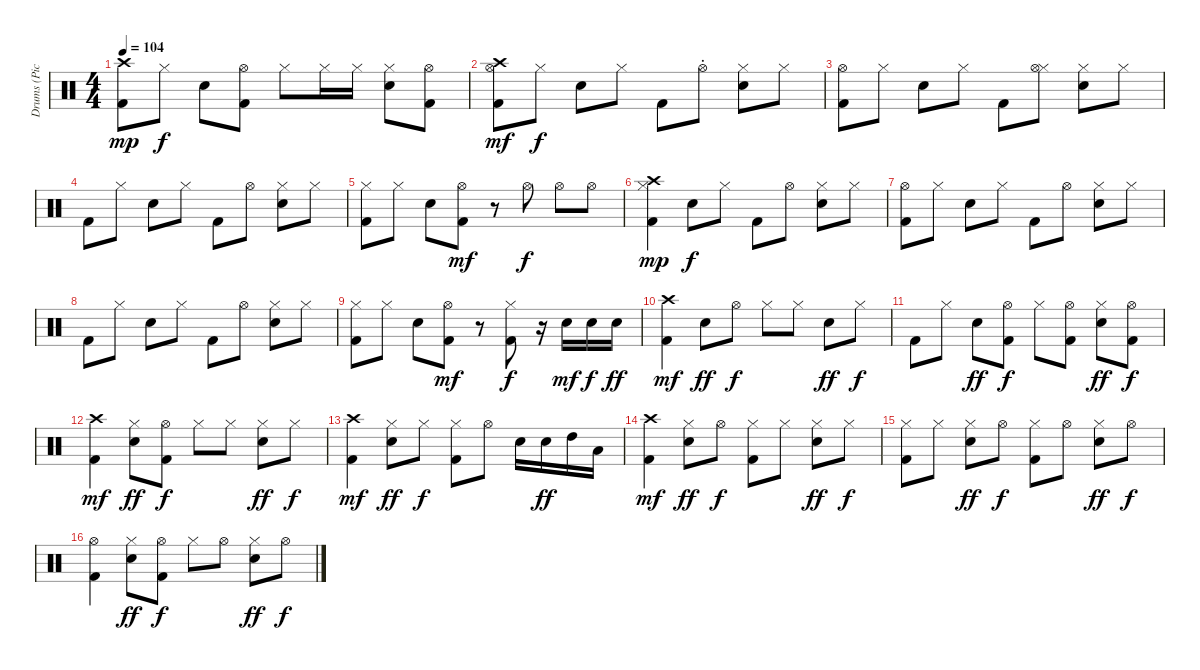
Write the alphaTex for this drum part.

\track ("Drums (Pick Whiters)" "Drums (Pic") {instrument percussion}
\staff {score}
\articulation defaults
\ts (4 4)
\tempo 104
\clef neutral
\ks c
("Kick (hit) 2" "Crash high (hit)").8{dy mp} "Hi-Hat (closed)".8{dy f} "Snare (hit) 2".8 ("Kick (hit) 2" "Hi-Hat (open)").8 "Hi-Hat (closed)".8 "Hi-Hat (closed)".16 "Hi-Hat (closed)".16 ("Snare (hit) 2" "Hi-Hat (closed)").8 ("Kick (hit) 2" "Hi-Hat (open)").8 |
("Crash high (hit)" "Kick (hit) 2" "Hi-Hat (open)").8{dy mf} "Hi-Hat (closed)".8{dy f} "Snare (hit) 2".8 "Hi-Hat (closed)".8 "Kick (hit) 2".8 "Hi-Hat (open)"{st}.8 ("Snare (hit) 2" "Hi-Hat (closed)").8 "Hi-Hat (closed)".8 |
("Kick (hit) 2" "Hi-Hat (open)").8 "Hi-Hat (closed)".8 "Snare (hit) 2".8 "Hi-Hat (closed)".8 "Kick (hit) 2".8 ("Hi-Hat (closed)" "Hi-Hat (open)").8 ("Snare (hit) 2" "Hi-Hat (closed)").8 "Hi-Hat (closed)".8 |
"Kick (hit) 2".8 "Hi-Hat (closed)".8 "Snare (hit) 2".8 "Hi-Hat (closed)".8 "Kick (hit) 2".8 "Hi-Hat (open)".8 ("Snare (hit) 2" "Hi-Hat (closed)").8 "Hi-Hat (closed)".8 |
("Kick (hit) 2" "Hi-Hat (closed)").8 "Hi-Hat (closed)".8 "Snare (hit) 2".8 ("Kick (hit) 2" "Hi-Hat (open)").8{dy mf} r.8 "Hi-Hat (open)".8{dy f} "Hi-Hat (open)".8 "Hi-Hat (open)".8 |
("Crash high (hit)" "Kick (hit) 2" "Hi-Hat (closed)").4{dy mp} "Snare (hit) 2".8{dy f} "Hi-Hat (closed)".8 "Kick (hit) 2".8 "Hi-Hat (open)".8 ("Snare (hit) 2" "Hi-Hat (closed)").8 "Hi-Hat (closed)".8 |
("Kick (hit) 2" "Hi-Hat (open)").8 "Hi-Hat (closed)".8 "Snare (hit) 2".8 "Hi-Hat (closed)".8 "Kick (hit) 2".8 "Hi-Hat (open)".8 ("Snare (hit) 2" "Hi-Hat (closed)").8 "Hi-Hat (closed)".8 |
"Kick (hit) 2".8 "Hi-Hat (closed)".8 "Snare (hit) 2".8 "Hi-Hat (closed)".8 "Kick (hit) 2".8 "Hi-Hat (open)".8 ("Snare (hit) 2" "Hi-Hat (closed)").8 "Hi-Hat (closed)".8 |
("Kick (hit) 2" "Hi-Hat (closed)").8 "Hi-Hat (closed)".8 "Snare (hit) 2".8 ("Kick (hit) 2" "Hi-Hat (open)").8{dy mf} r.8 ("Hi-Hat (closed)" "Kick (hit) 2").8{dy f} r.16 "Snare (hit) 2".16{dy mf} "Snare (hit) 2".16{dy f} "Snare (hit) 2".16{dy ff} |
("Kick (hit) 2" "Crash high (hit)").4{dy mf} "Snare (hit) 2".8{dy ff} "Hi-Hat (open)".8{dy f} "Hi-Hat (closed)".8 "Hi-Hat (closed)".8 "Snare (hit) 2".8{dy ff} "Hi-Hat (closed)".8{dy f} |
"Kick (hit) 2".8 "Hi-Hat (closed)".8 "Snare (hit) 2".8{dy ff} ("Hi-Hat (open)" "Kick (hit) 2").8{dy f} "Hi-Hat (closed)".8 ("Hi-Hat (open)" "Kick (hit) 2").8 ("Snare (hit) 2" "Hi-Hat (closed)").8{dy ff} ("Kick (hit) 2" "Hi-Hat (open)").8{dy f} |
("Crash high (hit)" "Kick (hit) 2").4{dy mf} ("Snare (hit) 2" "Hi-Hat (closed)").8{dy ff} ("Kick (hit) 2" "Hi-Hat (open)").8{dy f} "Hi-Hat (closed)".8 "Hi-Hat (closed)".8 ("Snare (hit) 2" "Hi-Hat (closed)").8{dy ff} "Hi-Hat (closed)".8{dy f} |
("Crash high (hit)" "Kick (hit) 2").4{dy mf} ("Hi-Hat (closed)" "Snare (hit) 2").8{dy ff} "Hi-Hat (closed)".8{dy f} ("Kick (hit) 2" "Hi-Hat (closed)").8 "Hi-Hat (open)".8 "Snare (hit) 2".16 "Snare (hit) 2".16{dy ff} "High Tom (hit)".16 "Low Tom (hit)".16 |
("Kick (hit) 2" "Crash high (hit)").4{dy mf} ("Snare (hit) 2" "Hi-Hat (closed)").8{dy ff} "Hi-Hat (open)".8{dy f} ("Kick (hit) 2" "Hi-Hat (closed)").8 "Hi-Hat (closed)".8 ("Snare (hit) 2" "Hi-Hat (closed)").8{dy ff} "Hi-Hat (closed)".8{dy f} |
("Kick (hit) 2" "Hi-Hat (closed)").8 "Hi-Hat (closed)".8 ("Snare (hit) 2" "Hi-Hat (closed)").8{dy ff} "Hi-Hat (open)".8{dy f} ("Kick (hit) 2" "Hi-Hat (closed)").8 "Hi-Hat (open)".8 ("Snare (hit) 2" "Hi-Hat (closed)").8{dy ff} "Hi-Hat (open)".8{dy f} |
("Kick (hit) 2" "Hi-Hat (open)").4 ("Snare (hit) 2" "Hi-Hat (closed)").8{dy ff} ("Kick (hit) 2" "Hi-Hat (open)").8{dy f} "Hi-Hat (closed)".8 "Hi-Hat (open)".8 ("Snare (hit) 2" "Hi-Hat (closed)").8{dy ff} "Hi-Hat (open)".8{dy f}
